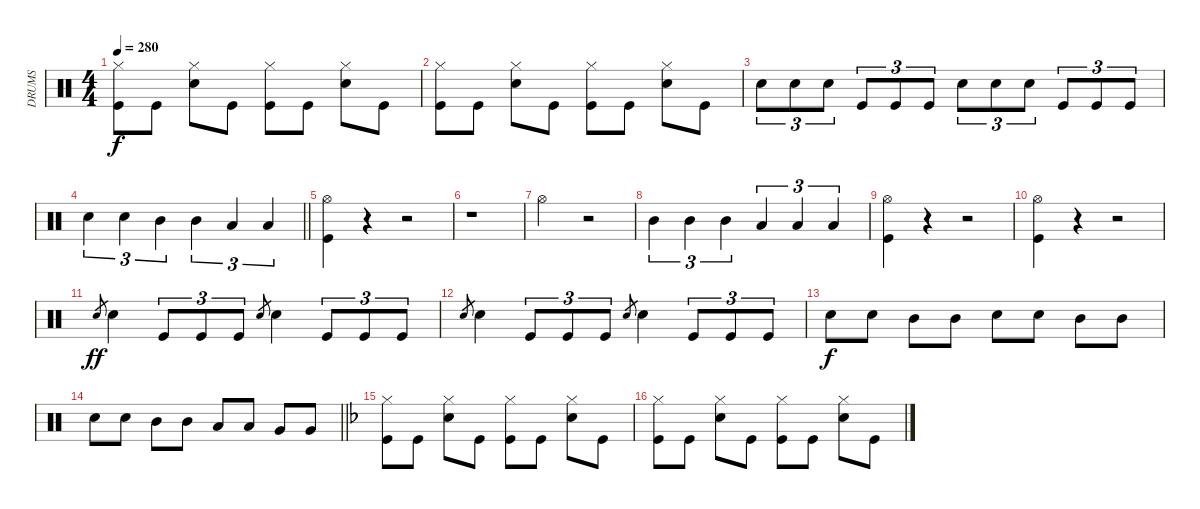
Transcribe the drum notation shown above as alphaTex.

\track ("DRUMS" "DRUMS") {instrument percussion}
\staff {score}
\articulation defaults
\ts (4 4)
\tempo 280
\clef neutral
\ks c
("Hi-Hat (closed)" "Kick (hit)").8{dy f} "Kick (hit)".8 ("Hi-Hat (closed)" "Snare (hit) 2").8 "Kick (hit)".8 ("Hi-Hat (closed)" "Kick (hit)").8 "Kick (hit)".8 ("Hi-Hat (closed)" "Snare (hit) 2").8 "Kick (hit)".8 |
("Hi-Hat (closed)" "Kick (hit)").8 "Kick (hit)".8 ("Hi-Hat (closed)" "Snare (hit) 2").8 "Kick (hit)".8 ("Hi-Hat (closed)" "Kick (hit)").8 "Kick (hit)".8 ("Hi-Hat (closed)" "Snare (hit) 2").8 "Kick (hit)".8 |
"Snare (hit) 2".8{tu (3 2)} "Snare (hit) 2".8{tu (3 2)} "Snare (hit) 2".8{tu (3 2)} "Kick (hit)".8{tu (3 2)} "Kick (hit)".8{tu (3 2)} "Kick (hit)".8{tu (3 2)} "Snare (hit) 2".8{tu (3 2)} "Snare (hit) 2".8{tu (3 2)} "Snare (hit) 2".8{tu (3 2)} "Kick (hit)".8{tu (3 2)} "Kick (hit)".8{tu (3 2)} "Kick (hit)".8{tu (3 2)} |
\barLineRight lightlight "Snare (hit) 2".4{tu (3 2)} "Snare (hit) 2".4{tu (3 2)} "Mid Tom (hit)".4{tu (3 2)} "Mid Tom (hit)".4{tu (3 2)} "Low Tom (hit)".4{tu (3 2)} "Low Tom (hit)".4{tu (3 2)}
|
("Hi-Hat (open)" "Kick (hit)").4 r.4 r.2 |
r.1 |
"Hi-Hat (open)".2 r.2 |
"Mid Tom (hit)".4{tu (3 2)} "Mid Tom (hit)".4{tu (3 2)} "Mid Tom (hit)".4{tu (3 2)} "Low Tom (hit)".4{tu (3 2)} "Low Tom (hit)".4{tu (3 2)} "Low Tom (hit)".4{tu (3 2)} |
("Hi-Hat (open)" "Kick (hit)").4 r.4 r.2 |
("Hi-Hat (open)" "Kick (hit)").4 r.4 r.2 |
"Snare (hit) 2".8{gr dy ff} "Snare (hit) 2".4 "Kick (hit)".8{tu (3 2)} "Kick (hit)".8{tu (3 2)} "Kick (hit)".8{tu (3 2)} "Snare (hit) 2".8{gr} "Snare (hit) 2".4 "Kick (hit)".8{tu (3 2)} "Kick (hit)".8{tu (3 2)} "Kick (hit)".8{tu (3 2)} |
"Snare (hit) 2".8{gr} "Snare (hit) 2".4 "Kick (hit)".8{tu (3 2)} "Kick (hit)".8{tu (3 2)} "Kick (hit)".8{tu (3 2)} "Snare (hit) 2".8{gr} "Snare (hit) 2".4 "Kick (hit)".8{tu (3 2)} "Kick (hit)".8{tu (3 2)} "Kick (hit)".8{tu (3 2)} |
"Snare (hit) 2".8{dy f} "Snare (hit) 2".8 "Mid Tom (hit)".8 "Mid Tom (hit)".8 "Snare (hit) 2".8 "Snare (hit) 2".8 "Mid Tom (hit)".8 "Mid Tom (hit)".8 |
\barLineRight lightlight "Snare (hit) 2".8 "Snare (hit) 2".8 "Mid Tom (hit)".8 "Mid Tom (hit)".8 "Low Tom (hit)".8 "Low Tom (hit)".8 "Very Low Tom (hit)".8 "Very Low Tom (hit)".8
|
\ks dminor
("Hi-Hat (closed)" "Kick (hit)").8 "Kick (hit)".8 ("Hi-Hat (closed)" "Snare (hit) 2").8 "Kick (hit)".8 ("Hi-Hat (closed)" "Kick (hit)").8 "Kick (hit)".8 ("Hi-Hat (closed)" "Snare (hit) 2").8 "Kick (hit)".8 |
("Hi-Hat (closed)" "Kick (hit)").8 "Kick (hit)".8 ("Hi-Hat (closed)" "Snare (hit) 2").8 "Kick (hit)".8 ("Hi-Hat (closed)" "Kick (hit)").8 "Kick (hit)".8 ("Hi-Hat (closed)" "Snare (hit) 2").8 "Kick (hit)".8
